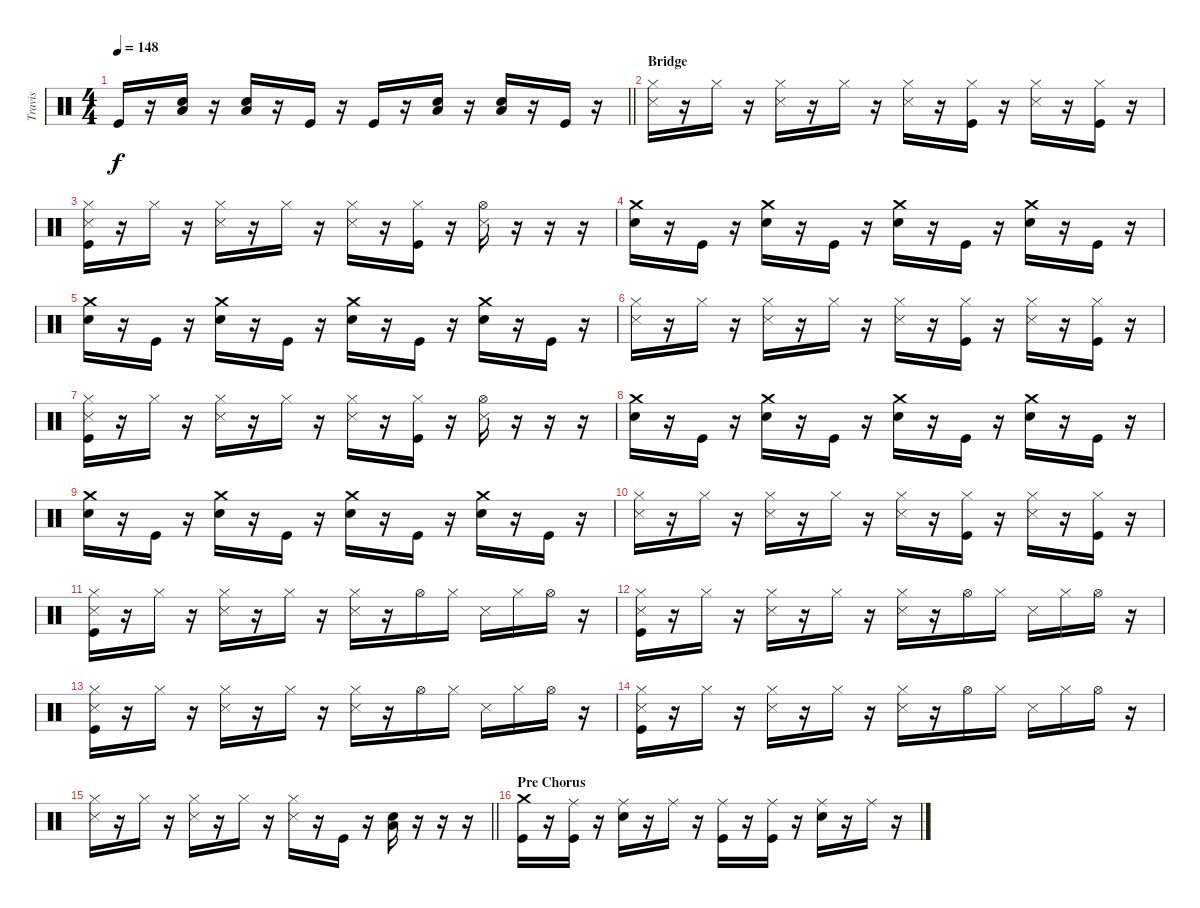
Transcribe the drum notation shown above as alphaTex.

\track ("Travis" "Travis") {instrument percussion}
\staff {score}
\articulation defaults
\ts (4 4)
\tempo 148
\clef neutral
\barLineRight lightlight
\ks c "Kick (hit)".16{dy f}
r.16 ("Low Floor Tom (hit)" "Snare (hit) 2").16 r.16 ("Low Floor Tom (hit)" "Snare (hit) 2").16 r.16 "Kick (hit)".16 r.16 "Kick (hit)".16 r.16 ("Low Floor Tom (hit)" "Snare (hit) 2").16 r.16 ("Low Floor Tom (hit)" "Snare (hit) 2").16 r.16 "Kick (hit)".16 r.16 |
\section ("" "Bridge")
("Hi-Hat (closed)" "Snare (side stick) 3").16 r.16 "Hi-Hat (closed)".16 r.16 ("Hi-Hat (closed)" "Snare (side stick) 3").16 r.16 "Hi-Hat (closed)".16 r.16 ("Hi-Hat (closed)" "Snare (side stick) 3").16 r.16 ("Hi-Hat (closed)" "Kick (hit)").16 r.16 ("Hi-Hat (closed)" "Snare (side stick) 3").16 r.16 ("Hi-Hat (closed)" "Kick (hit)").16 r.16 |
("Hi-Hat (closed)" "Snare (side stick) 3" "Kick (hit)").16 r.16 "Hi-Hat (closed)".16 r.16 ("Hi-Hat (closed)" "Snare (side stick) 3").16 r.16 "Hi-Hat (closed)".16 r.16 ("Hi-Hat (closed)" "Snare (side stick) 3").16 r.16 ("Hi-Hat (closed)" "Kick (hit)").16 r.16 ("Hi-Hat (open)" "Snare (side stick) 3").16 r.16 r.16 r.16 |
("Crash medium (hit)" "Snare (hit) 2").16 r.16 "Kick (hit)".16 r.16 ("Crash medium (hit)" "Snare (hit) 2").16 r.16 "Kick (hit)".16 r.16 ("Crash medium (hit)" "Snare (hit) 2").16 r.16 "Kick (hit)".16 r.16 ("Crash medium (hit)" "Snare (hit) 2").16 r.16 "Kick (hit)".16 r.16 |
("Crash medium (hit)" "Snare (hit) 2").16 r.16 "Kick (hit)".16 r.16 ("Crash medium (hit)" "Snare (hit) 2").16 r.16 "Kick (hit)".16 r.16 ("Crash medium (hit)" "Snare (hit) 2").16 r.16 "Kick (hit)".16 r.16 ("Crash medium (hit)" "Snare (hit) 2").16 r.16 "Kick (hit)".16 r.16 |
("Hi-Hat (closed)" "Snare (side stick) 3").16 r.16 "Hi-Hat (closed)".16 r.16 ("Hi-Hat (closed)" "Snare (side stick) 3").16 r.16 "Hi-Hat (closed)".16 r.16 ("Hi-Hat (closed)" "Snare (side stick) 3").16 r.16 ("Hi-Hat (closed)" "Kick (hit)").16 r.16 ("Hi-Hat (closed)" "Snare (side stick) 3").16 r.16 ("Hi-Hat (closed)" "Kick (hit)").16 r.16 |
("Hi-Hat (closed)" "Snare (side stick) 3" "Kick (hit)").16 r.16 "Hi-Hat (closed)".16 r.16 ("Hi-Hat (closed)" "Snare (side stick) 3").16 r.16 "Hi-Hat (closed)".16 r.16 ("Hi-Hat (closed)" "Snare (side stick) 3").16 r.16 ("Hi-Hat (closed)" "Kick (hit)").16 r.16 ("Hi-Hat (open)" "Snare (side stick) 3").16 r.16 r.16 r.16 |
("Crash medium (hit)" "Snare (hit) 2").16 r.16 "Kick (hit)".16 r.16 ("Crash medium (hit)" "Snare (hit) 2").16 r.16 "Kick (hit)".16 r.16 ("Crash medium (hit)" "Snare (hit) 2").16 r.16 "Kick (hit)".16 r.16 ("Crash medium (hit)" "Snare (hit) 2").16 r.16 "Kick (hit)".16 r.16 |
("Crash medium (hit)" "Snare (hit) 2").16 r.16 "Kick (hit)".16 r.16 ("Crash medium (hit)" "Snare (hit) 2").16 r.16 "Kick (hit)".16 r.16 ("Crash medium (hit)" "Snare (hit) 2").16 r.16 "Kick (hit)".16 r.16 ("Crash medium (hit)" "Snare (hit) 2").16 r.16 "Kick (hit)".16 r.16 |
("Hi-Hat (closed)" "Snare (side stick) 3").16 r.16 "Hi-Hat (closed)".16 r.16 ("Hi-Hat (closed)" "Snare (side stick) 3").16 r.16 "Hi-Hat (closed)".16 r.16 ("Hi-Hat (closed)" "Snare (side stick) 3").16 r.16 ("Hi-Hat (closed)" "Kick (hit)").16 r.16 ("Hi-Hat (closed)" "Snare (side stick) 3").16 r.16 ("Hi-Hat (closed)" "Kick (hit)").16 r.16 |
("Hi-Hat (closed)" "Snare (side stick) 3" "Kick (hit)").16 r.16 "Hi-Hat (closed)".16 r.16 ("Hi-Hat (closed)" "Snare (side stick) 3").16 r.16 "Hi-Hat (closed)".16 r.16 ("Hi-Hat (closed)" "Snare (side stick) 3").16 r.16 "Hi-Hat (open)".16 "Hi-Hat (closed)".16 "Snare (side stick) 3".16 "Hi-Hat (closed)".16 "Hi-Hat (open)".16 r.16 |
("Hi-Hat (closed)" "Snare (side stick) 3" "Kick (hit)").16 r.16 "Hi-Hat (closed)".16 r.16 ("Hi-Hat (closed)" "Snare (side stick) 3").16 r.16 "Hi-Hat (closed)".16 r.16 ("Hi-Hat (closed)" "Snare (side stick) 3").16 r.16 "Hi-Hat (open)".16 "Hi-Hat (closed)".16 "Snare (side stick) 3".16 "Hi-Hat (closed)".16 "Hi-Hat (open)".16 r.16 |
("Hi-Hat (closed)" "Snare (side stick) 3" "Kick (hit)").16 r.16 "Hi-Hat (closed)".16 r.16 ("Hi-Hat (closed)" "Snare (side stick) 3").16 r.16 "Hi-Hat (closed)".16 r.16 ("Hi-Hat (closed)" "Snare (side stick) 3").16 r.16 "Hi-Hat (open)".16 "Hi-Hat (closed)".16 "Snare (side stick) 3".16 "Hi-Hat (closed)".16 "Hi-Hat (open)".16 r.16 |
("Hi-Hat (closed)" "Snare (side stick) 3" "Kick (hit)").16 r.16 "Hi-Hat (closed)".16 r.16 ("Hi-Hat (closed)" "Snare (side stick) 3").16 r.16 "Hi-Hat (closed)".16 r.16 ("Hi-Hat (closed)" "Snare (side stick) 3").16 r.16 "Hi-Hat (open)".16 "Hi-Hat (closed)".16 "Snare (side stick) 3".16 "Hi-Hat (closed)".16 "Hi-Hat (open)".16 r.16 |
\barLineRight lightlight
("Hi-Hat (closed)" "Snare (side stick) 3").16 r.16 "Hi-Hat (closed)".16 r.16 ("Hi-Hat (closed)" "Snare (side stick) 3").16 r.16 "Hi-Hat (closed)".16 r.16 ("Hi-Hat (closed)" "Snare (side stick) 3").16 r.16 "Kick (hit)".16 r.16 ("Snare (hit) 2" "Low Floor Tom (hit)").16 r.16 r.16 r.16 |
\section ("" "Pre Chorus")
("Crash medium (hit)" "Kick (hit)").16 r.16 ("Ride (middle)" "Kick (hit)").16 r.16 ("Ride (middle)" "Snare (hit) 2").16 r.16 "Ride (middle)".16 r.16 ("Ride (middle)" "Kick (hit)").16 r.16 ("Ride (middle)" "Kick (hit)").16 r.16 ("Ride (middle)" "Snare (hit) 2").16 r.16 "Ride (middle)".16 r.16
